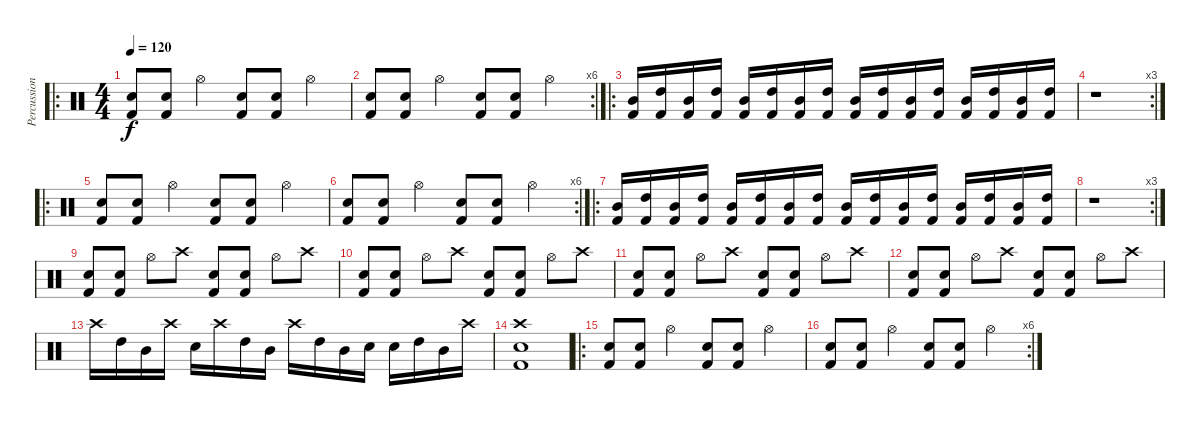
\track ("Percussion" "Percussion") {instrument percussion}
\staff {score}
\articulation defaults
\ro
\ts (4 4)
\tempo 120
\clef neutral
\ks c
("Electric Snare (hit)" "Kick (hit) 2").8{dy f} ("Electric Snare (hit)" "Kick (hit) 2").8 "Hi-Hat (open)".4 ("Electric Snare (hit)" "Kick (hit) 2").8 ("Electric Snare (hit)" "Kick (hit) 2").8 "Hi-Hat (open)".4 |
\rc 6
("Electric Snare (hit)" "Kick (hit) 2").8 ("Electric Snare (hit)" "Kick (hit) 2").8 "Hi-Hat (open)".4 ("Electric Snare (hit)" "Kick (hit) 2").8 ("Electric Snare (hit)" "Kick (hit) 2").8 "Hi-Hat (open)".4 |
\ro
("Kick (hit) 2" "Mid Tom (hit)").16 ("Kick (hit) 2" "High Tom (hit)").16 ("Kick (hit) 2" "Mid Tom (hit)").16 ("Kick (hit) 2" "High Tom (hit)").16 ("Kick (hit) 2" "Mid Tom (hit)").16 ("Kick (hit) 2" "High Tom (hit)").16 ("Kick (hit) 2" "Mid Tom (hit)").16 ("Kick (hit) 2" "High Tom (hit)").16 ("Kick (hit) 2" "Mid Tom (hit)").16 ("Kick (hit) 2" "High Tom (hit)").16 ("Kick (hit) 2" "Mid Tom (hit)").16 ("Kick (hit) 2" "High Tom (hit)").16 ("Kick (hit) 2" "Mid Tom (hit)").16 ("Kick (hit) 2" "High Tom (hit)").16 ("Kick (hit) 2" "Mid Tom (hit)").16 ("Kick (hit) 2" "High Tom (hit)").16 |
\rc 3
r.1 |
\ro
("Electric Snare (hit)" "Kick (hit) 2").8 ("Electric Snare (hit)" "Kick (hit) 2").8 "Hi-Hat (open)".4 ("Electric Snare (hit)" "Kick (hit) 2").8 ("Electric Snare (hit)" "Kick (hit) 2").8 "Hi-Hat (open)".4 |
\rc 6
("Electric Snare (hit)" "Kick (hit) 2").8 ("Electric Snare (hit)" "Kick (hit) 2").8 "Hi-Hat (open)".4 ("Electric Snare (hit)" "Kick (hit) 2").8 ("Electric Snare (hit)" "Kick (hit) 2").8 "Hi-Hat (open)".4 |
\ro
("Kick (hit) 2" "Mid Tom (hit)").16 ("Kick (hit) 2" "High Tom (hit)").16 ("Kick (hit) 2" "Mid Tom (hit)").16 ("Kick (hit) 2" "High Tom (hit)").16 ("Kick (hit) 2" "Mid Tom (hit)").16 ("Kick (hit) 2" "High Tom (hit)").16 ("Kick (hit) 2" "Mid Tom (hit)").16 ("Kick (hit) 2" "High Tom (hit)").16 ("Kick (hit) 2" "Mid Tom (hit)").16 ("Kick (hit) 2" "High Tom (hit)").16 ("Kick (hit) 2" "Mid Tom (hit)").16 ("Kick (hit) 2" "High Tom (hit)").16 ("Kick (hit) 2" "Mid Tom (hit)").16 ("Kick (hit) 2" "High Tom (hit)").16 ("Kick (hit) 2" "Mid Tom (hit)").16 ("Kick (hit) 2" "High Tom (hit)").16 |
\rc 3
r.1 |
("Electric Snare (hit)" "Kick (hit) 2").8 ("Electric Snare (hit)" "Kick (hit) 2").8 "Hi-Hat (open)".8 "Crash high (hit)".8 ("Electric Snare (hit)" "Kick (hit) 2").8 ("Electric Snare (hit)" "Kick (hit) 2").8 "Hi-Hat (open)".8 "Crash high (hit)".8 |
("Electric Snare (hit)" "Kick (hit) 2").8 ("Electric Snare (hit)" "Kick (hit) 2").8 "Hi-Hat (open)".8 "Crash high (hit)".8 ("Electric Snare (hit)" "Kick (hit) 2").8 ("Electric Snare (hit)" "Kick (hit) 2").8 "Hi-Hat (open)".8 "Crash high (hit)".8 |
("Electric Snare (hit)" "Kick (hit) 2").8 ("Electric Snare (hit)" "Kick (hit) 2").8 "Hi-Hat (open)".8 "Crash high (hit)".8 ("Electric Snare (hit)" "Kick (hit) 2").8 ("Electric Snare (hit)" "Kick (hit) 2").8 "Hi-Hat (open)".8 "Crash high (hit)".8 |
("Electric Snare (hit)" "Kick (hit) 2").8 ("Electric Snare (hit)" "Kick (hit) 2").8 "Hi-Hat (open)".8 "Crash high (hit)".8 ("Electric Snare (hit)" "Kick (hit) 2").8 ("Electric Snare (hit)" "Kick (hit) 2").8 "Hi-Hat (open)".8 "Crash high (hit)".8 |
"Crash high (hit)".16 "High Tom (hit)".16 "Mid Tom (hit)".16 "Crash high (hit)".16 "Electric Snare (hit)".16 "Crash high (hit)".16 "High Tom (hit)".16 "Mid Tom (hit)".16 "Crash high (hit)".16 "High Tom (hit)".16 "Mid Tom (hit)".16 "Electric Snare (hit)".16 "Electric Snare (hit)".16 "High Tom (hit)".16 "Mid Tom (hit)".16 "Crash high (hit)".16 |
("Crash high (hit)" "Electric Snare (hit)" "Kick (hit) 2").1 |
\ro
("Electric Snare (hit)" "Kick (hit) 2").8 ("Electric Snare (hit)" "Kick (hit) 2").8 "Hi-Hat (open)".4 ("Electric Snare (hit)" "Kick (hit) 2").8 ("Electric Snare (hit)" "Kick (hit) 2").8 "Hi-Hat (open)".4 |
\rc 6
("Electric Snare (hit)" "Kick (hit) 2").8 ("Electric Snare (hit)" "Kick (hit) 2").8 "Hi-Hat (open)".4 ("Electric Snare (hit)" "Kick (hit) 2").8 ("Electric Snare (hit)" "Kick (hit) 2").8 "Hi-Hat (open)".4
